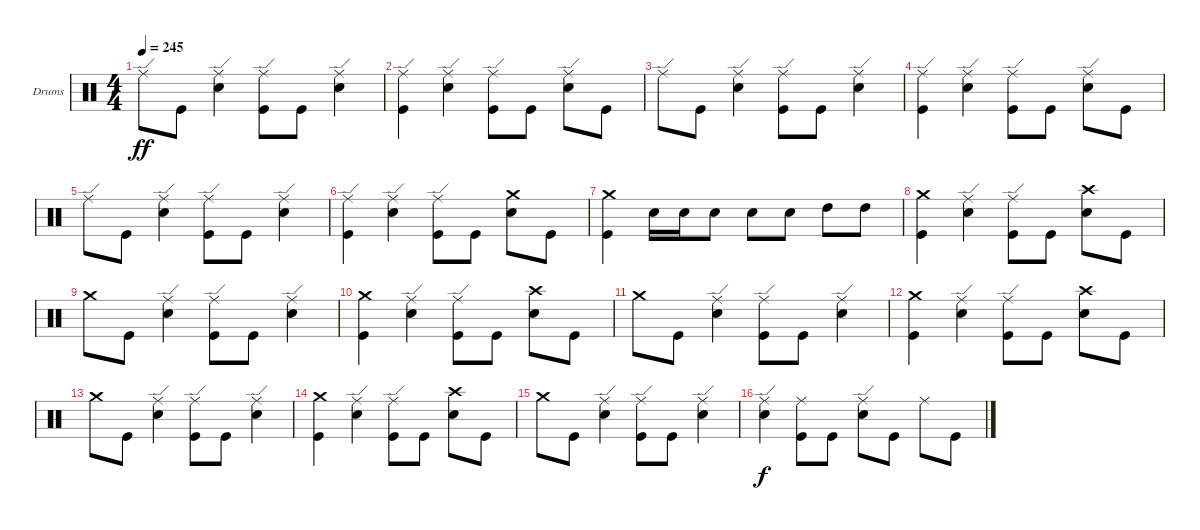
\bracketExtendMode groupsimilarinstruments
\firstSystemTrackNameOrientation horizontal
\otherSystemsTrackNameOrientation horizontal
\track ("Drumkit" "Drums") {instrument percussion}
\staff {score}
\articulation defaults
\ts (4 4)
\tempo 245
\clef neutral
\ks c "Ride (edge)".8{dy ff} "Kick (hit)".8
("Snare (hit) 2" "Ride (edge)").4 ("Kick (hit)" "Ride (edge)").8 "Kick (hit)".8 ("Snare (hit) 2" "Ride (edge)").4 |
("Kick (hit)" "Ride (edge)").4 ("Snare (hit) 2" "Ride (edge)").4 ("Kick (hit)" "Ride (edge)").8 "Kick (hit)".8 ("Snare (hit) 2" "Ride (edge)").8 "Kick (hit)".8 |
"Ride (edge)".8 "Kick (hit)".8 ("Snare (hit) 2" "Ride (edge)").4 ("Kick (hit)" "Ride (edge)").8 "Kick (hit)".8 ("Snare (hit) 2" "Ride (edge)").4 |
("Kick (hit)" "Ride (edge)").4 ("Snare (hit) 2" "Ride (edge)").4 ("Kick (hit)" "Ride (edge)").8 "Kick (hit)".8 ("Snare (hit) 2" "Ride (edge)").8 "Kick (hit)".8 |
"Ride (edge)".8 "Kick (hit)".8 ("Snare (hit) 2" "Ride (edge)").4 ("Kick (hit)" "Ride (edge)").8 "Kick (hit)".8 ("Snare (hit) 2" "Ride (edge)").4 |
("Kick (hit)" "Ride (edge)").4 ("Snare (hit) 2" "Ride (edge)").4 ("Kick (hit)" "Ride (edge)").8 "Kick (hit)".8 ("Snare (hit) 2" "Crash medium (hit)").8 "Kick (hit)".8 |
("Kick (hit)" "Crash medium (hit)").4 "Snare (hit) 2".16 "Snare (hit) 2".16 "Snare (hit) 2".8 "Snare (hit) 2".8 "Snare (hit) 2".8 "High Tom (hit)".8 "High Tom (hit)".8 |
("Kick (hit)" "Crash medium (hit)").4 ("Snare (hit) 2" "Ride (edge)").4 ("Kick (hit)" "Ride (edge)").8 "Kick (hit)".8 ("Snare (hit) 2" "Crash high (hit)").8 "Kick (hit)".8 |
"Crash medium (hit)".8 "Kick (hit)".8 ("Snare (hit) 2" "Ride (edge)").4 ("Kick (hit)" "Ride (edge)").8 "Kick (hit)".8 ("Snare (hit) 2" "Ride (edge)").4 |
("Kick (hit)" "Crash medium (hit)").4 ("Snare (hit) 2" "Ride (edge)").4 ("Kick (hit)" "Ride (edge)").8 "Kick (hit)".8 ("Snare (hit) 2" "Crash high (hit)").8 "Kick (hit)".8 |
"Crash medium (hit)".8 "Kick (hit)".8 ("Snare (hit) 2" "Ride (edge)").4 ("Kick (hit)" "Ride (edge)").8 "Kick (hit)".8 ("Snare (hit) 2" "Ride (edge)").4 |
("Kick (hit)" "Crash medium (hit)").4 ("Snare (hit) 2" "Ride (edge)").4 ("Kick (hit)" "Ride (edge)").8 "Kick (hit)".8 ("Snare (hit) 2" "Crash high (hit)").8 "Kick (hit)".8 |
"Crash medium (hit)".8 "Kick (hit)".8 ("Snare (hit) 2" "Ride (edge)").4 ("Kick (hit)" "Ride (edge)").8 "Kick (hit)".8 ("Snare (hit) 2" "Ride (edge)").4 |
("Kick (hit)" "Crash medium (hit)").4 ("Snare (hit) 2" "Ride (edge)").4 ("Kick (hit)" "Ride (edge)").8 "Kick (hit)".8 ("Snare (hit) 2" "Crash high (hit)").8 "Kick (hit)".8 |
"Crash medium (hit)".8 "Kick (hit)".8 ("Snare (hit) 2" "Ride (edge)").4 ("Kick (hit)" "Ride (edge)").8 "Kick (hit)".8 ("Snare (hit) 2" "Ride (edge)").4 |
("Snare (hit) 2" "Ride (edge)").4{dy f} ("Kick (hit)" "Ride (middle)").8 "Kick (hit)".8 ("Snare (hit) 2" "Ride (edge)").8 "Kick (hit)".8 "Ride (middle)".8 "Kick (hit)".8
